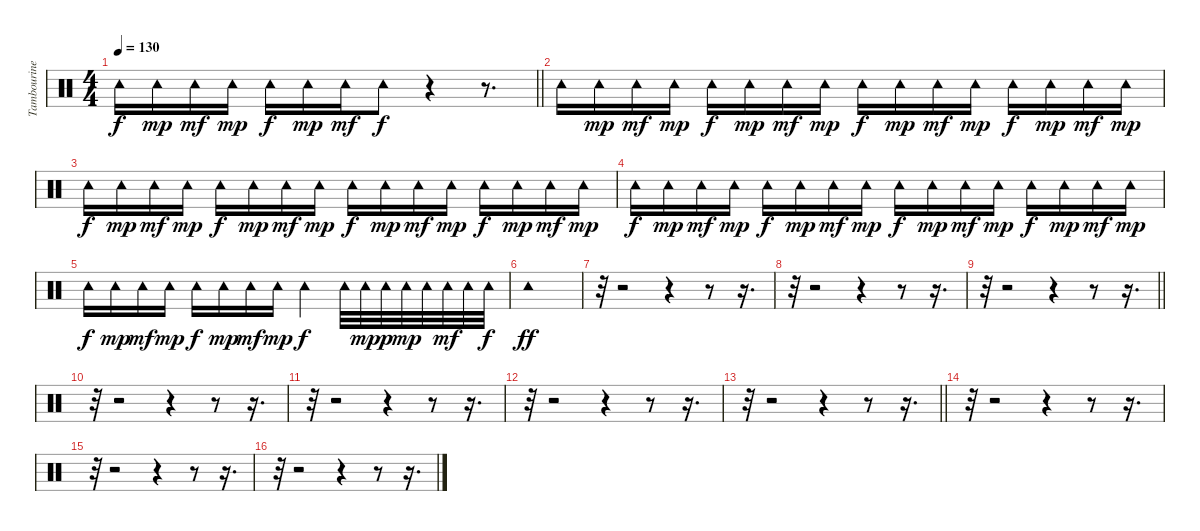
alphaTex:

\track ("Tambourine" "Tambourine") {instrument percussion}
\staff {score}
\articulation defaults
\ts (4 4)
\tempo 130
\clef neutral
\barLineRight lightlight
\ks c "Tambourine (hit)".16{dy f} "Tambourine (hit)".16{dy mp} "Tambourine (hit)".16{dy mf} "Tambourine (hit)".16{dy mp} "Tambourine (hit)".16{dy f} "Tambourine (hit)".16{dy mp} "Tambourine (hit)".16{dy mf} "Tambourine (hit)".8{dy f}
r.4 r.8{d} |
"Tambourine (hit)".16 "Tambourine (hit)".16{dy mp} "Tambourine (hit)".16{dy mf} "Tambourine (hit)".16{dy mp} "Tambourine (hit)".16{dy f} "Tambourine (hit)".16{dy mp} "Tambourine (hit)".16{dy mf} "Tambourine (hit)".16{dy mp} "Tambourine (hit)".16{dy f} "Tambourine (hit)".16{dy mp} "Tambourine (hit)".16{dy mf} "Tambourine (hit)".16{dy mp} "Tambourine (hit)".16{dy f} "Tambourine (hit)".16{dy mp} "Tambourine (hit)".16{dy mf} "Tambourine (hit)".16{dy mp} |
"Tambourine (hit)".16{dy f} "Tambourine (hit)".16{dy mp} "Tambourine (hit)".16{dy mf} "Tambourine (hit)".16{dy mp} "Tambourine (hit)".16{dy f} "Tambourine (hit)".16{dy mp} "Tambourine (hit)".16{dy mf} "Tambourine (hit)".16{dy mp} "Tambourine (hit)".16{dy f} "Tambourine (hit)".16{dy mp} "Tambourine (hit)".16{dy mf} "Tambourine (hit)".16{dy mp} "Tambourine (hit)".16{dy f} "Tambourine (hit)".16{dy mp} "Tambourine (hit)".16{dy mf} "Tambourine (hit)".16{dy mp} |
"Tambourine (hit)".16{dy f} "Tambourine (hit)".16{dy mp} "Tambourine (hit)".16{dy mf} "Tambourine (hit)".16{dy mp} "Tambourine (hit)".16{dy f} "Tambourine (hit)".16{dy mp} "Tambourine (hit)".16{dy mf} "Tambourine (hit)".16{dy mp} "Tambourine (hit)".16{dy f} "Tambourine (hit)".16{dy mp} "Tambourine (hit)".16{dy mf} "Tambourine (hit)".16{dy mp} "Tambourine (hit)".16{dy f} "Tambourine (hit)".16{dy mp} "Tambourine (hit)".16{dy mf} "Tambourine (hit)".16{dy mp} |
"Tambourine (hit)".16{dy f} "Tambourine (hit)".16{dy mp} "Tambourine (hit)".16{dy mf} "Tambourine (hit)".16{dy mp} "Tambourine (hit)".16{dy f} "Tambourine (hit)".16{dy mp} "Tambourine (hit)".16{dy mf} "Tambourine (hit)".16{dy mp} "Tambourine (hit)".4{dy f} "Tambourine (hit)".32 "Tambourine (hit)".32{dy mp} "Tambourine (hit)".32{dy p} "Tambourine (hit)".32{dy mp} "Tambourine (hit)".32 "Tambourine (hit)".32{dy mf} "Tambourine (hit)".32 "Tambourine (hit)".32{dy f} |
"Tambourine (hit)".1{dy ff} |
r.32 r.2 r.4 r.8 r.16{d} |
r.32 r.2 r.4 r.8 r.16{d} |
\barLineRight lightlight
r.32 r.2 r.4 r.8 r.16{d} |
r.32 r.2 r.4 r.8 r.16{d} |
r.32 r.2 r.4 r.8 r.16{d} |
r.32 r.2 r.4 r.8 r.16{d} |
\barLineRight lightlight
r.32 r.2 r.4 r.8 r.16{d} |
r.32 r.2 r.4 r.8 r.16{d} |
r.32 r.2 r.4 r.8 r.16{d} |
r.32 r.2 r.4 r.8 r.16{d}
